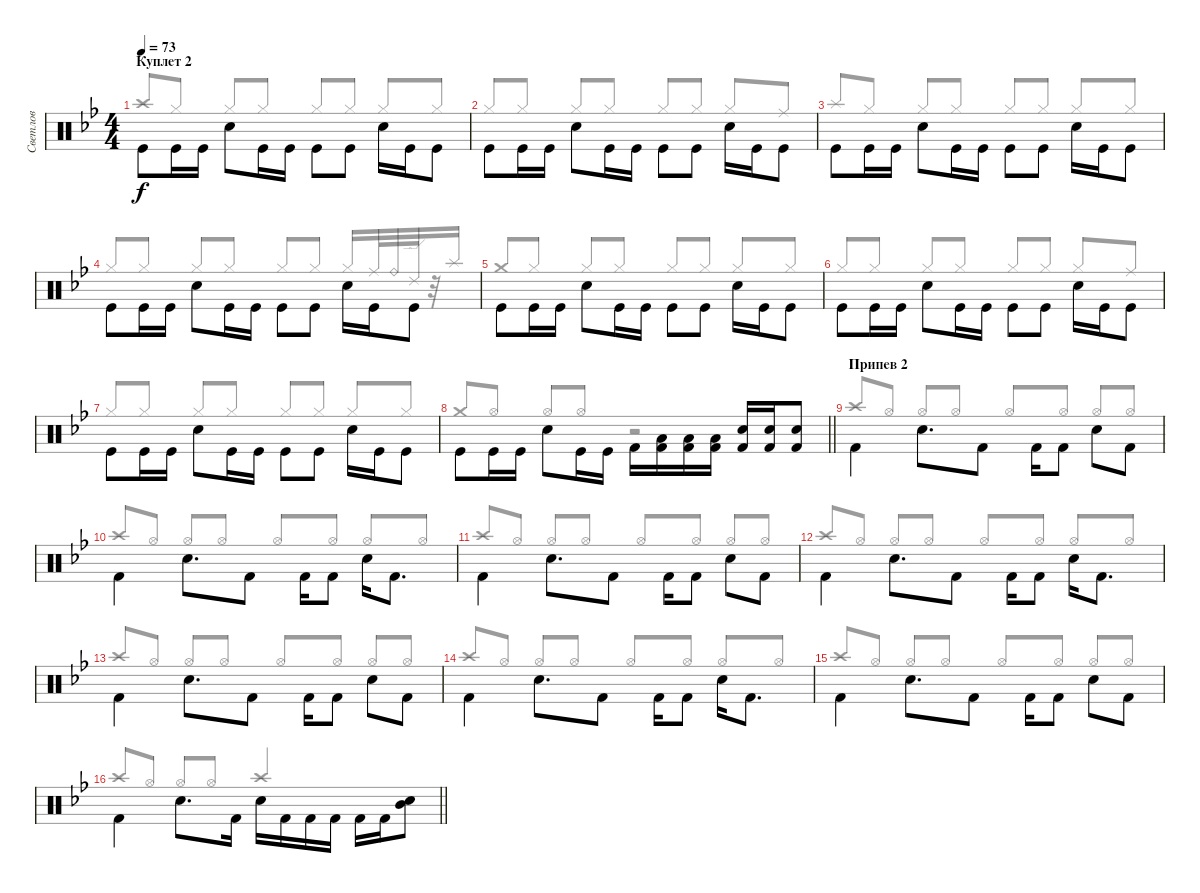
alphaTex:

\track ("Светлов" "Светлов") {instrument percussion}
\staff {score}
\articulation defaults
\voice
\ts (4 4)
\section ("" "Куплет 2")
\tempo 73
\clef neutral
\ks gminor "Kick (hit)".8{dy f beam Down} "Kick (hit)".16{beam Down} "Kick (hit)".16{beam Down} "Snare (hit) 2".8{beam Down} "Kick (hit)".16{beam Down} "Kick (hit)".16{beam Down} "Kick (hit)".8{beam Down} "Kick (hit)".8{beam Down} "Snare (hit) 2".16{beam Down} "Kick (hit)".16{beam Down} "Kick (hit)".8{beam Down}
|
"Kick (hit)".8{beam Down} "Kick (hit)".16{beam Down} "Kick (hit)".16{beam Down} "Snare (hit) 2".8{beam Down} "Kick (hit)".16{beam Down} "Kick (hit)".16{beam Down} "Kick (hit)".8{beam Down} "Kick (hit)".8{beam Down} "Snare (hit) 2".16{beam Down} "Kick (hit)".16{beam Down} "Kick (hit)".8{beam Down} |
"Kick (hit)".8{beam Down} "Kick (hit)".16{beam Down} "Kick (hit)".16{beam Down} "Snare (hit) 2".8{beam Down} "Kick (hit)".16{beam Down} "Kick (hit)".16{beam Down} "Kick (hit)".8{beam Down} "Kick (hit)".8{beam Down} "Snare (hit) 2".16{beam Down} "Kick (hit)".16{beam Down} "Kick (hit)".8{beam Down} |
"Kick (hit)".8{beam Down} "Kick (hit)".16{beam Down} "Kick (hit)".16{beam Down} "Snare (hit) 2".8{beam Down} "Kick (hit)".16{beam Down} "Kick (hit)".16{beam Down} "Kick (hit)".8{beam Down} "Kick (hit)".8{beam Down} "Snare (hit) 2".16{beam Down} "Kick (hit)".16{beam Down} "Kick (hit)".8{beam Down} |
"Kick (hit)".8{beam Down} "Kick (hit)".16{beam Down} "Kick (hit)".16{beam Down} "Snare (hit) 2".8{beam Down} "Kick (hit)".16{beam Down} "Kick (hit)".16{beam Down} "Kick (hit)".8{beam Down} "Kick (hit)".8{beam Down} "Snare (hit) 2".16{beam Down} "Kick (hit)".16{beam Down} "Kick (hit)".8{beam Down} |
"Kick (hit)".8{beam Down} "Kick (hit)".16{beam Down} "Kick (hit)".16{beam Down} "Snare (hit) 2".8{beam Down} "Kick (hit)".16{beam Down} "Kick (hit)".16{beam Down} "Kick (hit)".8{beam Down} "Kick (hit)".8{beam Down} "Snare (hit) 2".16{beam Down} "Kick (hit)".16{beam Down} "Kick (hit)".8{beam Down} |
"Kick (hit)".8{beam Down} "Kick (hit)".16{beam Down} "Kick (hit)".16{beam Down} "Snare (hit) 2".8{beam Down} "Kick (hit)".16{beam Down} "Kick (hit)".16{beam Down} "Kick (hit)".8{beam Down} "Kick (hit)".8{beam Down} "Snare (hit) 2".16{beam Down} "Kick (hit)".16{beam Down} "Kick (hit)".8{beam Down} |
\barLineRight lightlight "Kick (hit)".8{beam Down} "Kick (hit)".16{beam Down} "Kick (hit)".16{beam Down} "Snare (hit) 2".8{beam Down} "Kick (hit)".16{beam Down} "Kick (hit)".16{beam Down} "Kick (hit) 2".16{beam Down}
("Low Floor Tom (hit)" "Kick (hit) 2").16{beam Down} ("Low Tom (hit)" "Kick (hit) 2").16{beam Down} ("Low Tom (hit)" "Kick (hit) 2").16{beam Down} ("Snare (hit) 2" "Kick (hit) 2").16 ("Snare (hit) 2" "Kick (hit) 2").16 ("Snare (hit) 2" "Kick (hit) 2").8 |
\section ("" "Припев 2")
"Kick (hit) 2".4{beam Down} "Electric Snare (hit)".8{d beam Down} "Kick (hit) 2".8{beam Down} "Kick (hit) 2".16{beam Down} "Kick (hit) 2".8{beam Down} "Electric Snare (hit)".8{beam Down} "Kick (hit) 2".8{beam Down} |
"Kick (hit) 2".4{beam Down} "Electric Snare (hit)".8{d beam Down} "Kick (hit) 2".8{beam Down} "Kick (hit) 2".16{beam Down} "Kick (hit) 2".8{beam Down} "Electric Snare (hit)".16{beam Down} "Kick (hit) 2".8{d beam Down} |
"Kick (hit) 2".4{beam Down} "Electric Snare (hit)".8{d beam Down} "Kick (hit) 2".8{beam Down} "Kick (hit) 2".16{beam Down} "Kick (hit) 2".8{beam Down} "Electric Snare (hit)".8{beam Down} "Kick (hit) 2".8{beam Down} |
"Kick (hit) 2".4{beam Down} "Electric Snare (hit)".8{d beam Down} "Kick (hit) 2".8{beam Down} "Kick (hit) 2".16{beam Down} "Kick (hit) 2".8{beam Down} "Electric Snare (hit)".16{beam Down} "Kick (hit) 2".8{d beam Down} |
"Kick (hit) 2".4{beam Down} "Electric Snare (hit)".8{d beam Down} "Kick (hit) 2".8{beam Down} "Kick (hit) 2".16{beam Down} "Kick (hit) 2".8{beam Down} "Electric Snare (hit)".8{beam Down} "Kick (hit) 2".8{beam Down} |
"Kick (hit) 2".4{beam Down} "Electric Snare (hit)".8{d beam Down} "Kick (hit) 2".8{beam Down} "Kick (hit) 2".16{beam Down} "Kick (hit) 2".8{beam Down} "Electric Snare (hit)".16{beam Down} "Kick (hit) 2".8{d beam Down} |
"Kick (hit) 2".4{beam Down} "Electric Snare (hit)".8{d beam Down} "Kick (hit) 2".8{beam Down} "Kick (hit) 2".16{beam Down} "Kick (hit) 2".8{beam Down} "Electric Snare (hit)".8{beam Down} "Kick (hit) 2".8{beam Down} |
\barLineRight lightlight "Kick (hit) 2".4{beam Down} "Electric Snare (hit)".8{d beam Down} "Kick (hit) 2".16{beam Down} "Electric Snare (hit)".16{beam Down} "Kick (hit) 2".16{beam Down} "Kick (hit) 2".16{beam Down} "Kick (hit) 2".16{beam Down} "Kick (hit) 2".16{beam Down} "Kick (hit) 2".16{beam Down}
("Electric Snare (hit)" "Mid Tom (hit)").8{beam Down}
\voice
\clef neutral
\ottava regular
\simile none
\ks gminor "Crash high (hit)".8{dy f beam Up} "Hi-Hat (closed)".8{beam Up} "Hi-Hat (closed)".8{beam Up} "Hi-Hat (closed)".8{beam Up} "Hi-Hat (closed)".8{beam Up} "Hi-Hat (closed)".8{beam Up} "Hi-Hat (closed)".8{beam Up} "Hi-Hat (closed)".8{beam Up}
|
"Hi-Hat (closed)".8{beam Up} "Hi-Hat (closed)".8{beam Up} "Hi-Hat (closed)".8{beam Up} "Hi-Hat (closed)".8{beam Up} "Hi-Hat (closed)".8{beam Up} "Hi-Hat (closed)".8{beam Up} "Hi-Hat (closed)".8{beam Up} "Ride (middle)".8{beam Up} |
"Splash (hit)".8{beam Up} "Hi-Hat (closed)".8{beam Up} "Hi-Hat (closed)".8{beam Up} "Hi-Hat (closed)".8{beam Up} "Hi-Hat (closed)".8{beam Up} "Hi-Hat (closed)".8{beam Up} "Hi-Hat (closed)".8{beam Up} "Hi-Hat (closed)".8{beam Up} |
"Hi-Hat (closed)".8{beam Up} "Hi-Hat (closed)".8{beam Up} "Hi-Hat (closed)".8{beam Up} "Hi-Hat (closed)".8{beam Up} "Hi-Hat (closed)".8{beam Up} "Hi-Hat (closed)".8{beam Up} "Hi-Hat (closed)".16{beam Up} "Ride (middle)".32{beam Up} "Ride (bell)".32{beam Up} "Ride (edge) 2".32{beam Up} r.32 "Splash (hit)".16 |
"Crash medium (hit)".8{beam Up} "Hi-Hat (closed)".8{beam Up} "Hi-Hat (closed)".8{beam Up} "Hi-Hat (closed)".8{beam Up} "Hi-Hat (closed)".8{beam Up} "Hi-Hat (closed)".8{beam Up} "Hi-Hat (closed)".8{beam Up} "Hi-Hat (closed)".8{beam Up} |
"Hi-Hat (closed)".8{beam Up} "Hi-Hat (closed)".8{beam Up} "Hi-Hat (closed)".8{beam Up} "Hi-Hat (closed)".8{beam Up} "Hi-Hat (closed)".8{beam Up} "Hi-Hat (closed)".8{beam Up} "Hi-Hat (closed)".8{beam Up} "Ride (middle)".8{beam Up} |
"Hi-Hat (closed)".8{beam Up} "Hi-Hat (closed)".8{beam Up} "Hi-Hat (closed)".8{beam Up} "Hi-Hat (closed)".8{beam Up} "Hi-Hat (closed)".8{beam Up} "Hi-Hat (closed)".8{beam Up} "Hi-Hat (closed)".8{beam Up} "Hi-Hat (closed)".8{beam Up} |
\barLineRight lightlight "Crash medium (hit)".8{beam Up} "Hi-Hat (open)".8{beam Up} "Hi-Hat (open)".8{beam Up} "Hi-Hat (open)".8{beam Up}
r.2 |
"Crash high (hit)".8{beam Up} "Hi-Hat (open)".8{beam Up} "Hi-Hat (open)".8{beam Up} "Hi-Hat (open)".8{beam Up} "Hi-Hat (open)".8{beam Up} "Hi-Hat (open)".8{beam Up} "Hi-Hat (open)".8{beam Up} "Hi-Hat (open)".8{beam Up} |
"Crash high (hit)".8{beam Up} "Hi-Hat (open)".8{beam Up} "Hi-Hat (open)".8{beam Up} "Hi-Hat (open)".8{beam Up} "Hi-Hat (open)".8{beam Up} "Hi-Hat (open)".8{beam Up} "Hi-Hat (open)".8{beam Up} "Hi-Hat (open)".8{beam Up} |
"Crash high (hit)".8{beam Up} "Hi-Hat (open)".8{beam Up} "Hi-Hat (open)".8{beam Up} "Hi-Hat (open)".8{beam Up} "Hi-Hat (open)".8{beam Up} "Hi-Hat (open)".8{beam Up} "Hi-Hat (open)".8{beam Up} "Hi-Hat (open)".8{beam Up} |
"Crash high (hit)".8{beam Up} "Hi-Hat (open)".8{beam Up} "Hi-Hat (open)".8{beam Up} "Hi-Hat (open)".8{beam Up} "Hi-Hat (open)".8{beam Up} "Hi-Hat (open)".8{beam Up} "Hi-Hat (open)".8{beam Up} "Hi-Hat (open)".8{beam Up} |
"Crash high (hit)".8{beam Up} "Hi-Hat (open)".8{beam Up} "Hi-Hat (open)".8{beam Up} "Hi-Hat (open)".8{beam Up} "Hi-Hat (open)".8{beam Up} "Hi-Hat (open)".8{beam Up} "Hi-Hat (open)".8{beam Up} "Hi-Hat (open)".8{beam Up} |
"Crash high (hit)".8{beam Up} "Hi-Hat (open)".8{beam Up} "Hi-Hat (open)".8{beam Up} "Hi-Hat (open)".8{beam Up} "Hi-Hat (open)".8{beam Up} "Hi-Hat (open)".8{beam Up} "Hi-Hat (open)".8{beam Up} "Hi-Hat (open)".8{beam Up} |
"Crash high (hit)".8{beam Up} "Hi-Hat (open)".8{beam Up} "Hi-Hat (open)".8{beam Up} "Hi-Hat (open)".8{beam Up} "Hi-Hat (open)".8{beam Up} "Hi-Hat (open)".8{beam Up} "Hi-Hat (open)".8{beam Up} "Hi-Hat (open)".8{beam Up} |
\barLineRight lightlight "Crash high (hit)".8{beam Up} "Hi-Hat (open)".8{beam Up} "Hi-Hat (open)".8{beam Up} "Hi-Hat (open)".8{beam Up} "Crash high (hit)".2{beam Up}
